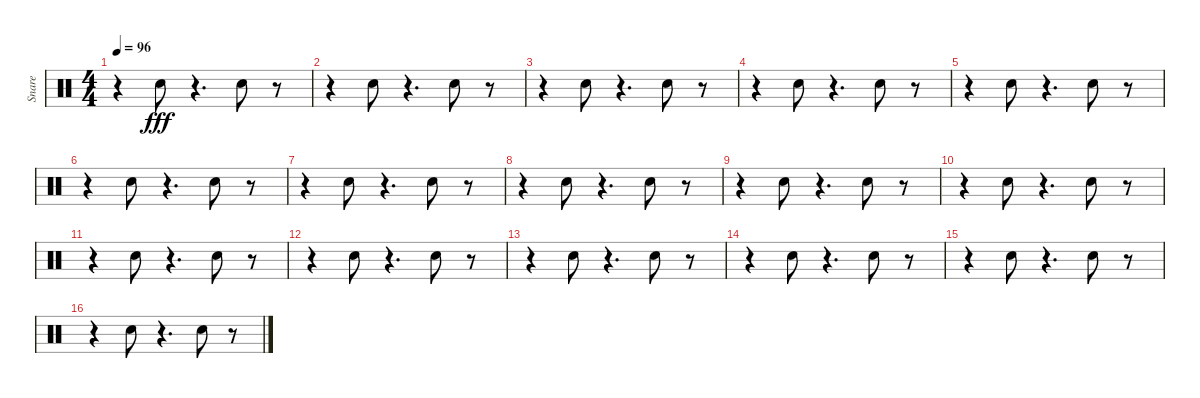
\track ("Snare" "Snare") {instrument percussion}
\staff {score}
\articulation defaults
\ts (4 4)
\tempo 96
\clef neutral
\ks c
r.4{dy fff} "Snare (hit) 2".8 r.4{d} "Snare (hit) 2".8 r.8 |
r.4 "Snare (hit) 2".8 r.4{d} "Snare (hit) 2".8 r.8 |
r.4 "Snare (hit) 2".8 r.4{d} "Snare (hit) 2".8 r.8 |
r.4 "Snare (hit) 2".8 r.4{d} "Snare (hit) 2".8 r.8 |
r.4 "Snare (hit) 2".8 r.4{d} "Snare (hit) 2".8 r.8 |
r.4 "Snare (hit) 2".8 r.4{d} "Snare (hit) 2".8 r.8 |
r.4 "Snare (hit) 2".8 r.4{d} "Snare (hit) 2".8 r.8 |
r.4 "Snare (hit) 2".8 r.4{d} "Snare (hit) 2".8 r.8 |
r.4 "Snare (hit) 2".8 r.4{d} "Snare (hit) 2".8 r.8 |
r.4 "Snare (hit) 2".8 r.4{d} "Snare (hit) 2".8 r.8 |
r.4 "Snare (hit) 2".8 r.4{d} "Snare (hit) 2".8 r.8 |
r.4 "Snare (hit) 2".8 r.4{d} "Snare (hit) 2".8 r.8 |
r.4 "Snare (hit) 2".8 r.4{d} "Snare (hit) 2".8 r.8 |
r.4 "Snare (hit) 2".8 r.4{d} "Snare (hit) 2".8 r.8 |
r.4 "Snare (hit) 2".8 r.4{d} "Snare (hit) 2".8 r.8 |
r.4 "Snare (hit) 2".8 r.4{d} "Snare (hit) 2".8 r.8
